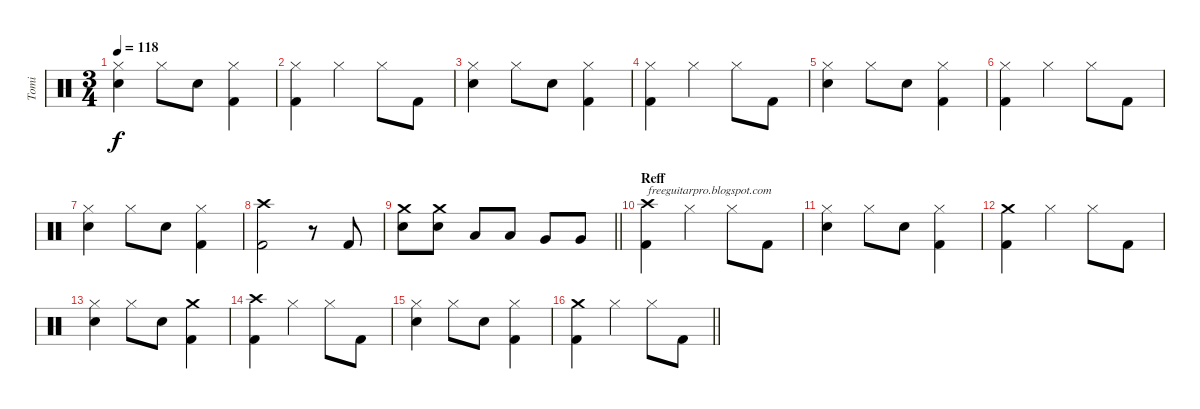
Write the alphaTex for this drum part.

\track ("Tomi" "Tomi") {instrument percussion}
\staff {score}
\articulation defaults
\ts (3 4)
\tempo 118
\clef neutral
\ks c
("Hi-Hat (closed)" "Electric Snare (hit)").4{dy f} "Hi-Hat (closed)".8 "Electric Snare (hit)".8 ("Hi-Hat (closed)" "Kick (hit) 2").4 |
("Hi-Hat (closed)" "Kick (hit) 2").4 "Hi-Hat (closed)".4 "Hi-Hat (closed)".8 "Kick (hit) 2".8 |
("Hi-Hat (closed)" "Electric Snare (hit)").4 "Hi-Hat (closed)".8 "Electric Snare (hit)".8 ("Hi-Hat (closed)" "Kick (hit) 2").4 |
("Hi-Hat (closed)" "Kick (hit) 2").4 "Hi-Hat (closed)".4 "Hi-Hat (closed)".8 "Kick (hit) 2".8 |
("Hi-Hat (closed)" "Electric Snare (hit)").4 "Hi-Hat (closed)".8 "Electric Snare (hit)".8 ("Hi-Hat (closed)" "Kick (hit) 2").4 |
("Hi-Hat (closed)" "Kick (hit) 2").4 "Hi-Hat (closed)".4 "Hi-Hat (closed)".8 "Kick (hit) 2".8 |
("Hi-Hat (closed)" "Electric Snare (hit)").4 "Hi-Hat (closed)".8 "Electric Snare (hit)".8 ("Hi-Hat (closed)" "Kick (hit) 2").4 |
("Crash high (hit)" "Kick (hit) 2").2 r.8 "Kick (hit) 2".8 |
\barLineRight lightlight
("Crash medium (hit)" "Electric Snare (hit)").8 ("Crash medium (hit)" "Electric Snare (hit)").8 "Low Tom (hit)".8 "Low Tom (hit)".8 "Very Low Tom (hit)".8 "Very Low Tom (hit)".8 |
\section ("" "Reff")
("Crash high (hit)" "Kick (hit) 2").4{txt "freeguitarpro.blogspot.com"} "Hi-Hat (closed)".4 "Hi-Hat (closed)".8 "Kick (hit) 2".8 |
("Hi-Hat (closed)" "Electric Snare (hit)").4 "Hi-Hat (closed)".8 "Electric Snare (hit)".8 ("Hi-Hat (closed)" "Kick (hit) 2").4 |
("Crash medium (hit)" "Kick (hit) 2").4 "Hi-Hat (closed)".4 "Hi-Hat (closed)".8 "Kick (hit) 2".8 |
("Hi-Hat (closed)" "Electric Snare (hit)").4 "Hi-Hat (closed)".8 "Electric Snare (hit)".8 ("Crash medium (hit)" "Kick (hit) 2").4 |
("Crash high (hit)" "Kick (hit) 2").4 "Hi-Hat (closed)".4 "Hi-Hat (closed)".8 "Kick (hit) 2".8 |
("Hi-Hat (closed)" "Electric Snare (hit)").4 "Hi-Hat (closed)".8 "Electric Snare (hit)".8 ("Hi-Hat (closed)" "Kick (hit) 2").4 |
\barLineRight lightlight
("Crash medium (hit)" "Kick (hit) 2").4 "Hi-Hat (closed)".4 "Hi-Hat (closed)".8 "Kick (hit) 2".8
